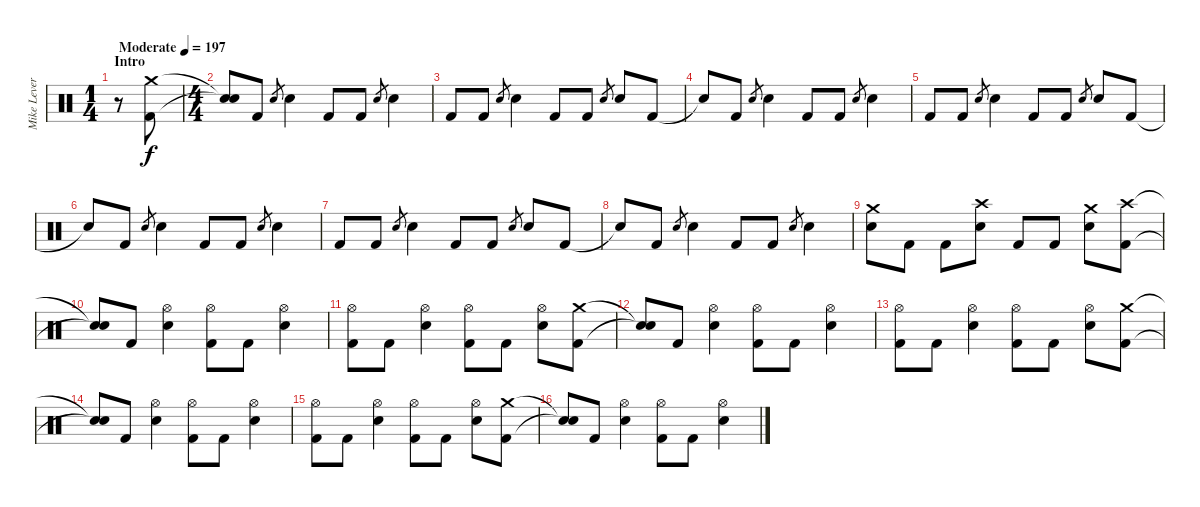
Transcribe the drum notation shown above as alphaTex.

\track ("Mike Leverence - Drums" "Mike Lever") {instrument percussion}
\staff {score}
\articulation defaults
\ts (1 4)
\section ("" "Intro")
\tempo (197 "Moderate")
\clef neutral
\ks c
r.8{dy f} ("Crash medium (hit)" "Kick (hit) 2").8 |
\ts (4 4)
("Snare (hit)"{t} "Snare (hit)"{t}).8 "Kick (hit) 2".8 "Electric Snare (hit)".8{gr} "Electric Snare (hit)".4 "Kick (hit) 2".8 "Kick (hit) 2".8 "Electric Snare (hit)".8{gr} "Electric Snare (hit)".4 |
"Kick (hit) 2".8 "Kick (hit) 2".8 "Electric Snare (hit)".8{gr} "Electric Snare (hit)".4 "Kick (hit) 2".8 "Kick (hit) 2".8 "Electric Snare (hit)".8{gr} "Electric Snare (hit)".8 "Kick (hit) 2".8 |
"Snare (hit)"{t}.8 "Kick (hit) 2".8 "Electric Snare (hit)".8{gr} "Electric Snare (hit)".4 "Kick (hit) 2".8 "Kick (hit) 2".8 "Electric Snare (hit)".8{gr} "Electric Snare (hit)".4 |
"Kick (hit) 2".8 "Kick (hit) 2".8 "Electric Snare (hit)".8{gr} "Electric Snare (hit)".4 "Kick (hit) 2".8 "Kick (hit) 2".8 "Electric Snare (hit)".8{gr} "Electric Snare (hit)".8 "Kick (hit) 2".8 |
"Snare (hit)"{t}.8 "Kick (hit) 2".8 "Electric Snare (hit)".8{gr} "Electric Snare (hit)".4 "Kick (hit) 2".8 "Kick (hit) 2".8 "Electric Snare (hit)".8{gr} "Electric Snare (hit)".4 |
"Kick (hit) 2".8 "Kick (hit) 2".8 "Electric Snare (hit)".8{gr} "Electric Snare (hit)".4 "Kick (hit) 2".8 "Kick (hit) 2".8 "Electric Snare (hit)".8{gr} "Electric Snare (hit)".8 "Kick (hit) 2".8 |
"Snare (hit)"{t}.8 "Kick (hit) 2".8 "Electric Snare (hit)".8{gr} "Electric Snare (hit)".4 "Kick (hit) 2".8 "Kick (hit) 2".8 "Electric Snare (hit)".8{gr} "Electric Snare (hit)".4 |
("Crash medium (hit)" "Electric Snare (hit)").8 "Kick (hit) 2".8 "Kick (hit) 2".8 ("Crash high (hit)" "Electric Snare (hit)").8 "Kick (hit) 2".8 "Kick (hit) 2".8 ("Crash medium (hit)" "Electric Snare (hit)").8 ("Crash high (hit)" "Kick (hit) 2").8 |
("Snare (hit)"{t} "Snare (hit)"{t}).8 "Kick (hit) 2".8 ("Hi-Hat (open)" "Electric Snare (hit)").4 ("Hi-Hat (open)" "Kick (hit) 2").8 "Kick (hit) 2".8 ("Hi-Hat (open)" "Electric Snare (hit)").4 |
("Hi-Hat (open)" "Kick (hit) 2").8 "Kick (hit) 2".8 ("Hi-Hat (open)" "Electric Snare (hit)").4 ("Hi-Hat (open)" "Kick (hit) 2").8 "Kick (hit) 2".8 ("Hi-Hat (open)" "Electric Snare (hit)").8 ("Crash medium (hit)" "Kick (hit) 2").8 |
("Snare (hit)"{t} "Snare (hit)"{t}).8 "Kick (hit) 2".8 ("Hi-Hat (open)" "Electric Snare (hit)").4 ("Hi-Hat (open)" "Kick (hit) 2").8 "Kick (hit) 2".8 ("Hi-Hat (open)" "Electric Snare (hit)").4 |
("Hi-Hat (open)" "Kick (hit) 2").8 "Kick (hit) 2".8 ("Hi-Hat (open)" "Electric Snare (hit)").4 ("Hi-Hat (open)" "Kick (hit) 2").8 "Kick (hit) 2".8 ("Hi-Hat (open)" "Electric Snare (hit)").8 ("Crash medium (hit)" "Kick (hit) 2").8 |
("Snare (hit)"{t} "Snare (hit)"{t}).8 "Kick (hit) 2".8 ("Hi-Hat (open)" "Electric Snare (hit)").4 ("Hi-Hat (open)" "Kick (hit) 2").8 "Kick (hit) 2".8 ("Hi-Hat (open)" "Electric Snare (hit)").4 |
("Hi-Hat (open)" "Kick (hit) 2").8 "Kick (hit) 2".8 ("Hi-Hat (open)" "Electric Snare (hit)").4 ("Hi-Hat (open)" "Kick (hit) 2").8 "Kick (hit) 2".8 ("Hi-Hat (open)" "Electric Snare (hit)").8 ("Crash medium (hit)" "Kick (hit) 2").8 |
("Snare (hit)"{t} "Snare (hit)"{t}).8 "Kick (hit) 2".8 ("Hi-Hat (open)" "Electric Snare (hit)").4 ("Hi-Hat (open)" "Kick (hit) 2").8 "Kick (hit) 2".8 ("Hi-Hat (open)" "Electric Snare (hit)").4
